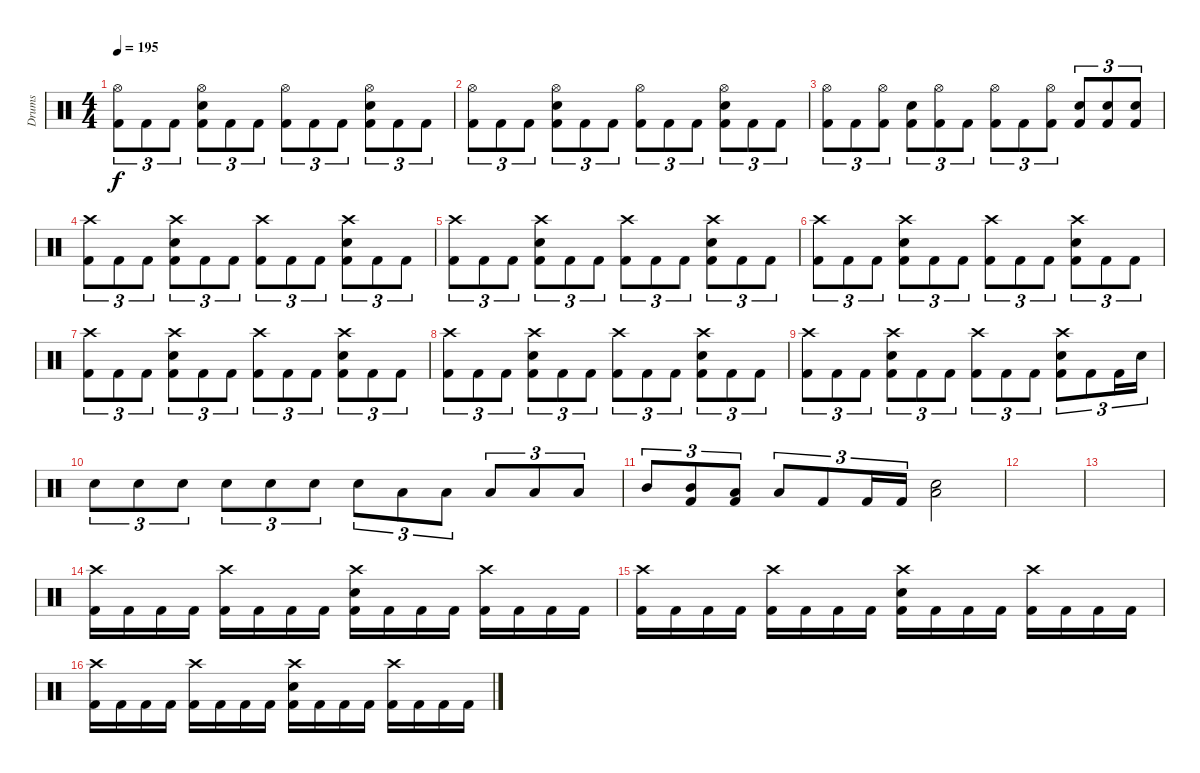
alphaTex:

\track ("Drums" "Drums") {instrument percussion}
\staff {score}
\articulation defaults
\ts (4 4)
\tempo 195
\clef neutral
\ks c
("Hi-Hat (open)" "Kick (hit) 2").8{tu (3 2) dy f} "Kick (hit) 2".8{tu (3 2)} "Kick (hit) 2".8{tu (3 2)} ("Hi-Hat (open)" "Snare (hit) 2" "Kick (hit) 2").8{tu (3 2)} "Kick (hit) 2".8{tu (3 2)} "Kick (hit) 2".8{tu (3 2)} ("Hi-Hat (open)" "Kick (hit) 2").8{tu (3 2)} "Kick (hit) 2".8{tu (3 2)} "Kick (hit) 2".8{tu (3 2)} ("Hi-Hat (open)" "Snare (hit) 2" "Kick (hit) 2").8{tu (3 2)} "Kick (hit) 2".8{tu (3 2)} "Kick (hit) 2".8{tu (3 2)} |
("Hi-Hat (open)" "Kick (hit) 2").8{tu (3 2)} "Kick (hit) 2".8{tu (3 2)} "Kick (hit) 2".8{tu (3 2)} ("Hi-Hat (open)" "Snare (hit) 2" "Kick (hit) 2").8{tu (3 2)} "Kick (hit) 2".8{tu (3 2)} "Kick (hit) 2".8{tu (3 2)} ("Hi-Hat (open)" "Kick (hit) 2").8{tu (3 2)} "Kick (hit) 2".8{tu (3 2)} "Kick (hit) 2".8{tu (3 2)} ("Hi-Hat (open)" "Snare (hit) 2" "Kick (hit) 2").8{tu (3 2)} "Kick (hit) 2".8{tu (3 2)} "Kick (hit) 2".8{tu (3 2)} |
("Hi-Hat (open)" "Kick (hit) 2").8{tu (3 2)} "Kick (hit) 2".8{tu (3 2)} ("Hi-Hat (open)" "Kick (hit) 2").8{tu (3 2)} ("Snare (hit) 2" "Kick (hit) 2").8{tu (3 2)} ("Hi-Hat (open)" "Kick (hit) 2").8{tu (3 2)} "Kick (hit) 2".8{tu (3 2)} ("Hi-Hat (open)" "Kick (hit) 2").8{tu (3 2)} "Kick (hit) 2".8{tu (3 2)} ("Hi-Hat (open)" "Kick (hit) 2").8{tu (3 2)} ("Snare (hit) 2" "Kick (hit) 2").8{tu (3 2)} ("Snare (hit) 2" "Kick (hit) 2").8{tu (3 2)} ("Snare (hit) 2" "Kick (hit) 2").8{tu (3 2)} |
("Crash high (hit)" "Kick (hit) 2").8{tu (3 2)} "Kick (hit) 2".8{tu (3 2)} "Kick (hit) 2".8{tu (3 2)} ("Crash high (hit)" "Snare (hit) 2" "Kick (hit) 2").8{tu (3 2)} "Kick (hit) 2".8{tu (3 2)} "Kick (hit) 2".8{tu (3 2)} ("Crash high (hit)" "Kick (hit) 2").8{tu (3 2)} "Kick (hit) 2".8{tu (3 2)} "Kick (hit) 2".8{tu (3 2)} ("Crash high (hit)" "Snare (hit) 2" "Kick (hit) 2").8{tu (3 2)} "Kick (hit) 2".8{tu (3 2)} "Kick (hit) 2".8{tu (3 2)} |
("Crash high (hit)" "Kick (hit) 2").8{tu (3 2)} "Kick (hit) 2".8{tu (3 2)} "Kick (hit) 2".8{tu (3 2)} ("Crash high (hit)" "Snare (hit) 2" "Kick (hit) 2").8{tu (3 2)} "Kick (hit) 2".8{tu (3 2)} "Kick (hit) 2".8{tu (3 2)} ("Crash high (hit)" "Kick (hit) 2").8{tu (3 2)} "Kick (hit) 2".8{tu (3 2)} "Kick (hit) 2".8{tu (3 2)} ("Crash high (hit)" "Snare (hit) 2" "Kick (hit) 2").8{tu (3 2)} "Kick (hit) 2".8{tu (3 2)} "Kick (hit) 2".8{tu (3 2)} |
("Crash high (hit)" "Kick (hit) 2").8{tu (3 2)} "Kick (hit) 2".8{tu (3 2)} "Kick (hit) 2".8{tu (3 2)} ("Crash high (hit)" "Snare (hit) 2" "Kick (hit) 2").8{tu (3 2)} "Kick (hit) 2".8{tu (3 2)} "Kick (hit) 2".8{tu (3 2)} ("Crash high (hit)" "Kick (hit) 2").8{tu (3 2)} "Kick (hit) 2".8{tu (3 2)} "Kick (hit) 2".8{tu (3 2)} ("Crash high (hit)" "Snare (hit) 2" "Kick (hit) 2").8{tu (3 2)} "Kick (hit) 2".8{tu (3 2)} "Kick (hit) 2".8{tu (3 2)} |
("Crash high (hit)" "Kick (hit) 2").8{tu (3 2)} "Kick (hit) 2".8{tu (3 2)} "Kick (hit) 2".8{tu (3 2)} ("Crash high (hit)" "Snare (hit) 2" "Kick (hit) 2").8{tu (3 2)} "Kick (hit) 2".8{tu (3 2)} "Kick (hit) 2".8{tu (3 2)} ("Crash high (hit)" "Kick (hit) 2").8{tu (3 2)} "Kick (hit) 2".8{tu (3 2)} "Kick (hit) 2".8{tu (3 2)} ("Crash high (hit)" "Snare (hit) 2" "Kick (hit) 2").8{tu (3 2)} "Kick (hit) 2".8{tu (3 2)} "Kick (hit) 2".8{tu (3 2)} |
("Crash high (hit)" "Kick (hit) 2").8{tu (3 2)} "Kick (hit) 2".8{tu (3 2)} "Kick (hit) 2".8{tu (3 2)} ("Crash high (hit)" "Snare (hit) 2" "Kick (hit) 2").8{tu (3 2)} "Kick (hit) 2".8{tu (3 2)} "Kick (hit) 2".8{tu (3 2)} ("Crash high (hit)" "Kick (hit) 2").8{tu (3 2)} "Kick (hit) 2".8{tu (3 2)} "Kick (hit) 2".8{tu (3 2)} ("Crash high (hit)" "Snare (hit) 2" "Kick (hit) 2").8{tu (3 2)} "Kick (hit) 2".8{tu (3 2)} "Kick (hit) 2".8{tu (3 2)} |
("Crash high (hit)" "Kick (hit) 2").8{tu (3 2)} "Kick (hit) 2".8{tu (3 2)} "Kick (hit) 2".8{tu (3 2)} ("Crash high (hit)" "Snare (hit) 2" "Kick (hit) 2").8{tu (3 2)} "Kick (hit) 2".8{tu (3 2)} "Kick (hit) 2".8{tu (3 2)} ("Crash high (hit)" "Kick (hit) 2").8{tu (3 2)} "Kick (hit) 2".8{tu (3 2)} "Kick (hit) 2".8{tu (3 2)} ("Crash high (hit)" "Snare (hit) 2" "Kick (hit) 2").8{tu (3 2)} "Kick (hit) 2".8{tu (3 2)} "Kick (hit) 2".16{tu (3 2)} "Snare (hit) 2".16{tu (3 2)} |
"Snare (hit) 2".8{tu (3 2)} "Snare (hit) 2".8{tu (3 2)} "Snare (hit) 2".8{tu (3 2)} "Snare (hit) 2".8{tu (3 2)} "Snare (hit) 2".8{tu (3 2)} "Snare (hit) 2".8{tu (3 2)} "Snare (hit) 2".8{tu (3 2)} "Low Tom (hit)".8{tu (3 2)} "Low Tom (hit)".8{tu (3 2)} "Low Tom (hit)".8{tu (3 2)} "Low Tom (hit)".8{tu (3 2)} "Low Tom (hit)".8{tu (3 2)} |
"Mid Tom (hit)".8{tu (3 2)} ("Mid Tom (hit)" "Kick (hit) 2").8{tu (3 2)} ("Low Tom (hit)" "Kick (hit) 2").8{tu (3 2)} "Low Floor Tom (hit)".8{tu (3 2)} "Kick (hit) 2".8{tu (3 2)} "Kick (hit) 2".16{tu (3 2)} "Kick (hit) 2".16{tu (3 2)} ("Low Floor Tom (hit)" "Snare (hit) 2").2 |
|
|
("Crash high (hit)" "Kick (hit) 2").16 "Kick (hit) 2".16 "Kick (hit) 2".16 "Kick (hit) 2".16 ("Crash high (hit)" "Kick (hit) 2").16 "Kick (hit) 2".16 "Kick (hit) 2".16 "Kick (hit) 2".16 ("Crash high (hit)" "Snare (hit) 2" "Kick (hit) 2").16 "Kick (hit) 2".16 "Kick (hit) 2".16 "Kick (hit) 2".16 ("Crash high (hit)" "Kick (hit) 2").16 "Kick (hit) 2".16 "Kick (hit) 2".16 "Kick (hit) 2".16 |
("Crash high (hit)" "Kick (hit) 2").16 "Kick (hit) 2".16 "Kick (hit) 2".16 "Kick (hit) 2".16 ("Crash high (hit)" "Kick (hit) 2").16 "Kick (hit) 2".16 "Kick (hit) 2".16 "Kick (hit) 2".16 ("Crash high (hit)" "Snare (hit) 2" "Kick (hit) 2").16 "Kick (hit) 2".16 "Kick (hit) 2".16 "Kick (hit) 2".16 ("Crash high (hit)" "Kick (hit) 2").16 "Kick (hit) 2".16 "Kick (hit) 2".16 "Kick (hit) 2".16 |
("Crash high (hit)" "Kick (hit) 2").16 "Kick (hit) 2".16 "Kick (hit) 2".16 "Kick (hit) 2".16 ("Crash high (hit)" "Kick (hit) 2").16 "Kick (hit) 2".16 "Kick (hit) 2".16 "Kick (hit) 2".16 ("Crash high (hit)" "Snare (hit) 2" "Kick (hit) 2").16 "Kick (hit) 2".16 "Kick (hit) 2".16 "Kick (hit) 2".16 ("Crash high (hit)" "Kick (hit) 2").16 "Kick (hit) 2".16 "Kick (hit) 2".16 "Kick (hit) 2".16
